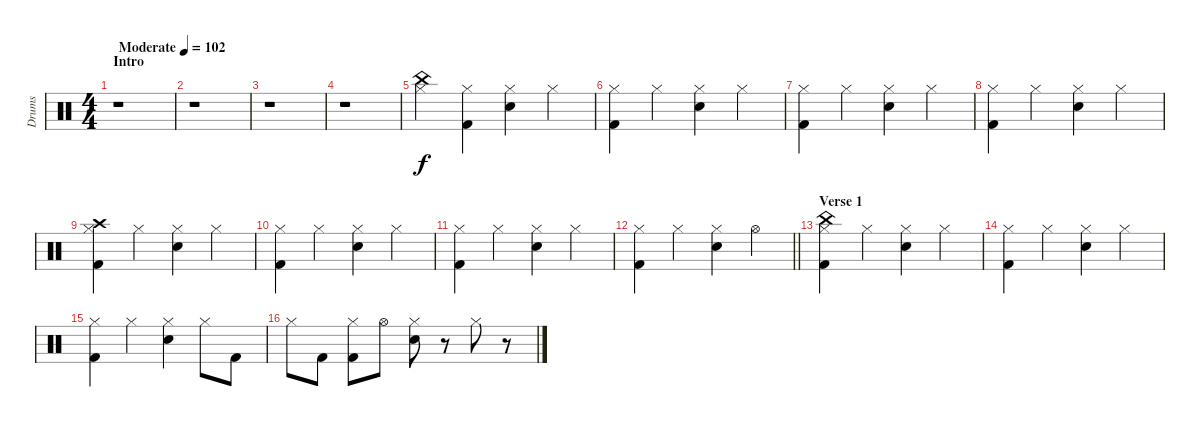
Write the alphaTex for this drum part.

\track ("Drums" "Drums") {instrument percussion}
\staff {score}
\articulation defaults
\ts (4 4)
\section ("" "Intro")
\tempo (102 "Moderate")
\clef neutral
\ks c
r.1{dy f} |
r.1 |
r.1 |
r.1 |
("China (hit)" "Hi-Hat (closed)").4 ("Hi-Hat (closed)" "Kick (hit) 2").4 ("Hi-Hat (closed)" "Electric Snare (hit)").4 "Hi-Hat (closed)".4 |
("Hi-Hat (closed)" "Kick (hit) 2").4 "Hi-Hat (closed)".4 ("Hi-Hat (closed)" "Electric Snare (hit)").4 "Hi-Hat (closed)".4 |
("Hi-Hat (closed)" "Kick (hit) 2").4 "Hi-Hat (closed)".4 ("Hi-Hat (closed)" "Electric Snare (hit)").4 "Hi-Hat (closed)".4 |
("Hi-Hat (closed)" "Kick (hit) 2").4 "Hi-Hat (closed)".4 ("Hi-Hat (closed)" "Electric Snare (hit)").4 "Hi-Hat (closed)".4 |
("Crash high (hit)" "Hi-Hat (closed)" "Kick (hit) 2").4 "Hi-Hat (closed)".4 ("Hi-Hat (closed)" "Electric Snare (hit)").4 "Hi-Hat (closed)".4 |
("Hi-Hat (closed)" "Kick (hit) 2").4 "Hi-Hat (closed)".4 ("Hi-Hat (closed)" "Electric Snare (hit)").4 "Hi-Hat (closed)".4 |
("Hi-Hat (closed)" "Kick (hit) 2").4 "Hi-Hat (closed)".4 ("Hi-Hat (closed)" "Electric Snare (hit)").4 "Hi-Hat (closed)".4 |
\barLineRight lightlight
("Hi-Hat (closed)" "Kick (hit) 2").4 "Hi-Hat (closed)".4 ("Hi-Hat (closed)" "Electric Snare (hit)").4 "Hi-Hat (open)".4 |
\section ("" "Verse 1")
("China (hit)" "Hi-Hat (closed)" "Kick (hit) 2").4 "Hi-Hat (closed)".4 ("Hi-Hat (closed)" "Electric Snare (hit)").4 "Hi-Hat (closed)".4 |
("Hi-Hat (closed)" "Kick (hit) 2").4 "Hi-Hat (closed)".4 ("Hi-Hat (closed)" "Electric Snare (hit)").4 "Hi-Hat (closed)".4 |
("Hi-Hat (closed)" "Kick (hit) 2").4 "Hi-Hat (closed)".4 ("Hi-Hat (closed)" "Electric Snare (hit)").4 "Hi-Hat (closed)".8 "Kick (hit) 2".8 |
"Hi-Hat (closed)".8 "Kick (hit) 2".8 ("Hi-Hat (closed)" "Kick (hit) 2").8 "Hi-Hat (open)".8 ("Hi-Hat (closed)" "Electric Snare (hit)").8 r.8 "Hi-Hat (closed)".8 r.8
